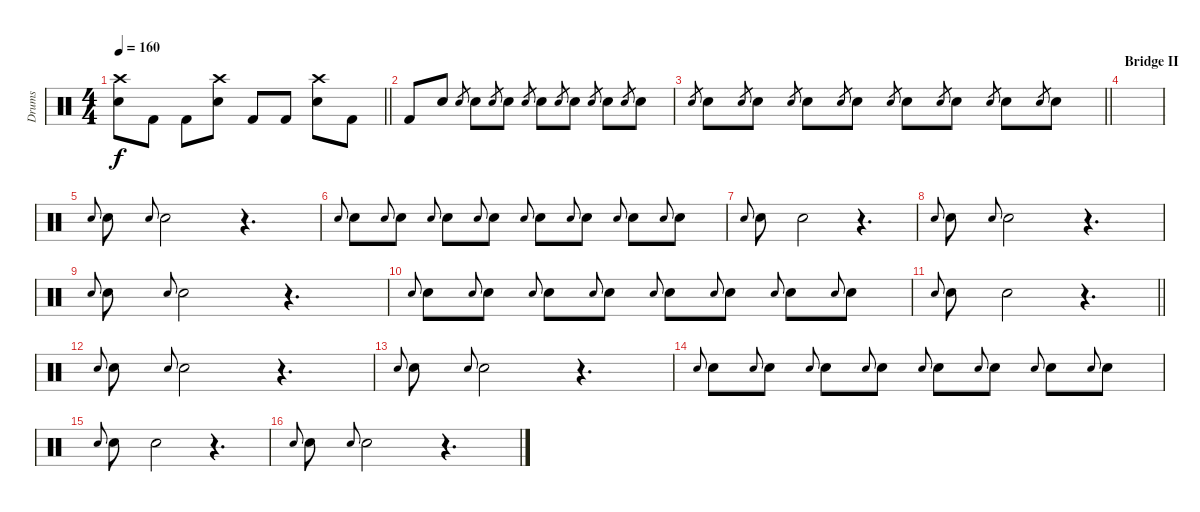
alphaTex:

\track ("Drums" "Drums") {instrument percussion}
\staff {score}
\articulation defaults
\ts (4 4)
\tempo 160
\clef neutral
\barLineRight lightlight
\ks c
("Electric Snare (hit)" "Crash high (hit)").8{dy f} "Kick (hit) 2".8 "Kick (hit) 2".8 ("Electric Snare (hit)" "Crash high (hit)").8 "Kick (hit) 2".8 "Kick (hit) 2".8 ("Electric Snare (hit)" "Crash high (hit)").8 "Kick (hit) 2".8 |
"Kick (hit) 2".8{volume 8} "Electric Snare (hit)".8{volume 11} "Electric Snare (hit)".8{gr} "Electric Snare (hit)".8 "Electric Snare (hit)".8{gr} "Electric Snare (hit)".8 "Electric Snare (hit)".8{gr} "Electric Snare (hit)".8 "Electric Snare (hit)".8{gr} "Electric Snare (hit)".8 "Electric Snare (hit)".8{gr} "Electric Snare (hit)".8 "Electric Snare (hit)".8{gr} "Electric Snare (hit)".8 |
\barLineRight lightlight "Electric Snare (hit)".8{gr} "Electric Snare (hit)".8 "Electric Snare (hit)".8{gr} "Electric Snare (hit)".8 "Electric Snare (hit)".8{gr} "Electric Snare (hit)".8 "Electric Snare (hit)".8{gr} "Electric Snare (hit)".8 "Electric Snare (hit)".8{gr} "Electric Snare (hit)".8 "Electric Snare (hit)".8{gr} "Electric Snare (hit)".8 "Electric Snare (hit)".8{gr} "Electric Snare (hit)".8 "Electric Snare (hit)".8{gr} "Electric Snare (hit)".8
|
\section ("" "Bridge II")
|
"Electric Snare (hit)".8{gr onbeat} "Electric Snare (hit)".8 "Electric Snare (hit)".8{gr onbeat} "Electric Snare (hit)".2 r.4{d} |
"Electric Snare (hit)".8{gr onbeat} "Electric Snare (hit)".8 "Electric Snare (hit)".8{gr onbeat} "Electric Snare (hit)".8 "Electric Snare (hit)".8{gr onbeat} "Electric Snare (hit)".8 "Electric Snare (hit)".8{gr onbeat} "Electric Snare (hit)".8 "Electric Snare (hit)".8{gr onbeat} "Electric Snare (hit)".8 "Electric Snare (hit)".8{gr onbeat} "Electric Snare (hit)".8 "Electric Snare (hit)".8{gr onbeat} "Electric Snare (hit)".8 "Electric Snare (hit)".8{gr onbeat} "Electric Snare (hit)".8 |
"Electric Snare (hit)".8{gr onbeat} "Electric Snare (hit)".8 "Electric Snare (hit)".2 r.4{d} |
"Electric Snare (hit)".8{gr onbeat} "Electric Snare (hit)".8 "Electric Snare (hit)".8{gr onbeat} "Electric Snare (hit)".2 r.4{d} |
"Electric Snare (hit)".8{gr onbeat} "Electric Snare (hit)".8 "Electric Snare (hit)".8{gr onbeat} "Electric Snare (hit)".2 r.4{d} |
"Electric Snare (hit)".8{gr onbeat} "Electric Snare (hit)".8 "Electric Snare (hit)".8{gr onbeat} "Electric Snare (hit)".8 "Electric Snare (hit)".8{gr onbeat} "Electric Snare (hit)".8 "Electric Snare (hit)".8{gr onbeat} "Electric Snare (hit)".8 "Electric Snare (hit)".8{gr onbeat} "Electric Snare (hit)".8 "Electric Snare (hit)".8{gr onbeat} "Electric Snare (hit)".8 "Electric Snare (hit)".8{gr onbeat} "Electric Snare (hit)".8 "Electric Snare (hit)".8{gr onbeat} "Electric Snare (hit)".8 |
\barLineRight lightlight "Electric Snare (hit)".8{gr onbeat} "Electric Snare (hit)".8 "Electric Snare (hit)".2
r.4{d} |
"Electric Snare (hit)".8{gr onbeat} "Electric Snare (hit)".8 "Electric Snare (hit)".8{gr onbeat} "Electric Snare (hit)".2 r.4{d} |
"Electric Snare (hit)".8{gr onbeat} "Electric Snare (hit)".8 "Electric Snare (hit)".8{gr onbeat} "Electric Snare (hit)".2 r.4{d} |
"Electric Snare (hit)".8{gr onbeat} "Electric Snare (hit)".8 "Electric Snare (hit)".8{gr onbeat} "Electric Snare (hit)".8 "Electric Snare (hit)".8{gr onbeat} "Electric Snare (hit)".8 "Electric Snare (hit)".8{gr onbeat} "Electric Snare (hit)".8 "Electric Snare (hit)".8{gr onbeat} "Electric Snare (hit)".8 "Electric Snare (hit)".8{gr onbeat} "Electric Snare (hit)".8 "Electric Snare (hit)".8{gr onbeat} "Electric Snare (hit)".8 "Electric Snare (hit)".8{gr onbeat} "Electric Snare (hit)".8 |
"Electric Snare (hit)".8{gr onbeat} "Electric Snare (hit)".8 "Electric Snare (hit)".2 r.4{d} |
"Electric Snare (hit)".8{gr onbeat} "Electric Snare (hit)".8 "Electric Snare (hit)".8{gr onbeat} "Electric Snare (hit)".2 r.4{d}
